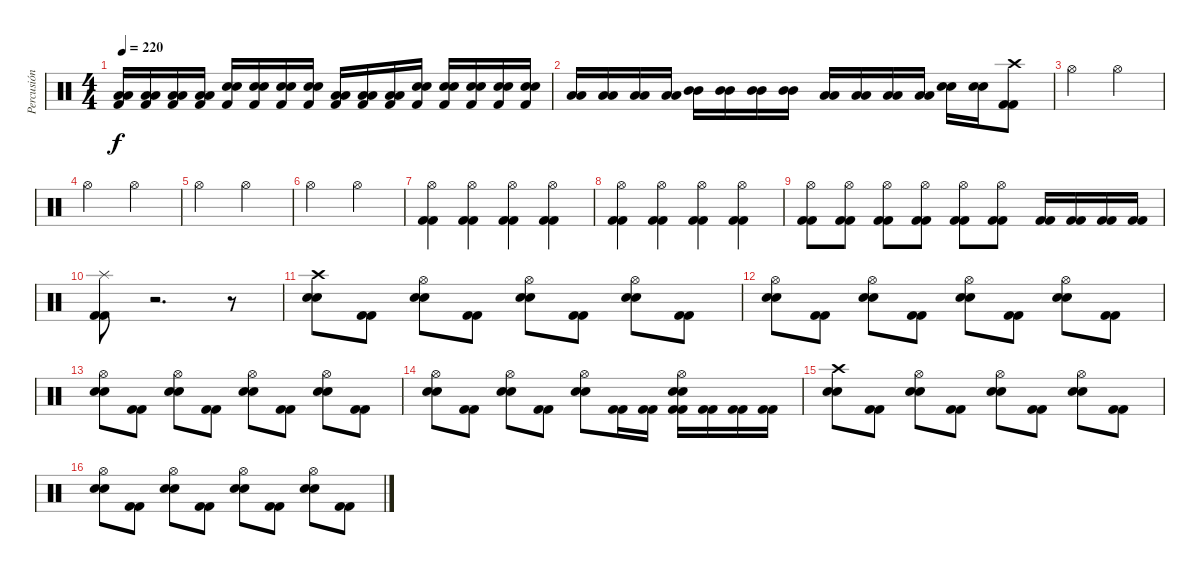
\track ("Percusión" "Percusión") {instrument percussion}
\staff {score}
\articulation defaults
\ts (4 4)
\tempo 220
\clef neutral
\ks c
("Kick (hit) 2" "Low Tom (hit)" "Low Tom (hit)").16{dy f} ("Kick (hit) 2" "Low Tom (hit)" "Low Tom (hit)").16 ("Kick (hit) 2" "Low Tom (hit)" "Low Tom (hit)").16 ("Kick (hit) 2" "Low Tom (hit)" "Low Tom (hit)").16 ("Kick (hit) 2" "Electric Snare (hit)" "Electric Snare (hit)").16 ("Kick (hit) 2" "Electric Snare (hit)" "Electric Snare (hit)").16 ("Kick (hit) 2" "Electric Snare (hit)" "Electric Snare (hit)").16 ("Kick (hit) 2" "Electric Snare (hit)" "Electric Snare (hit)").16 ("Kick (hit) 2" "Low Tom (hit)" "Low Tom (hit)").16 ("Kick (hit) 2" "Low Tom (hit)" "Low Tom (hit)").16 ("Kick (hit) 2" "Low Tom (hit)" "Low Tom (hit)").16 ("Kick (hit) 2" "Electric Snare (hit)" "Electric Snare (hit)").16 ("Kick (hit) 2" "Electric Snare (hit)" "Electric Snare (hit)").16 ("Kick (hit) 2" "Electric Snare (hit)" "Electric Snare (hit)").16 ("Kick (hit) 2" "Electric Snare (hit)" "Electric Snare (hit)").16 ("Kick (hit) 2" "Electric Snare (hit)" "Electric Snare (hit)").16 |
("Low Tom (hit)" "Low Tom (hit)").16 ("Low Tom (hit)" "Low Tom (hit)").16 ("Low Tom (hit)" "Low Tom (hit)").16 ("Low Tom (hit)" "Low Tom (hit)").16 ("Mid Tom (hit)" "Mid Tom (hit)").16 ("Mid Tom (hit)" "Mid Tom (hit)").16 ("Mid Tom (hit)" "Mid Tom (hit)").16 ("Mid Tom (hit)" "Mid Tom (hit)").16 ("Low Floor Tom (hit)" "Low Floor Tom (hit)").16 ("Low Floor Tom (hit)" "Low Floor Tom (hit)").16 ("Low Floor Tom (hit)" "Low Floor Tom (hit)").16 ("Low Floor Tom (hit)" "Low Floor Tom (hit)").16 ("Electric Snare (hit)" "Electric Snare (hit)").16 ("Electric Snare (hit)" "Electric Snare (hit)").16 ("Kick (hit) 2" "Kick (hit) 2" "Crash high (hit)").8 |
"Hi-Hat (open)".2 "Hi-Hat (open)".2 |
"Hi-Hat (open)".2 "Hi-Hat (open)".2 |
"Hi-Hat (open)".2 "Hi-Hat (open)".2 |
"Hi-Hat (open)".2 "Hi-Hat (open)".2 |
("Kick (hit) 2" "Kick (hit) 2" "Hi-Hat (open)").4 ("Kick (hit) 2" "Kick (hit) 2" "Hi-Hat (open)").4 ("Kick (hit) 2" "Kick (hit) 2" "Hi-Hat (open)").4 ("Kick (hit) 2" "Kick (hit) 2" "Hi-Hat (open)").4 |
("Kick (hit) 2" "Kick (hit) 2" "Hi-Hat (open)").4 ("Kick (hit) 2" "Kick (hit) 2" "Hi-Hat (open)").4 ("Kick (hit) 2" "Kick (hit) 2" "Hi-Hat (open)").4 ("Kick (hit) 2" "Kick (hit) 2" "Hi-Hat (open)").4 |
("Kick (hit) 2" "Kick (hit) 2" "Hi-Hat (open)").8 ("Kick (hit) 2" "Kick (hit) 2" "Hi-Hat (open)").8 ("Kick (hit) 2" "Kick (hit) 2" "Hi-Hat (open)").8 ("Kick (hit) 2" "Kick (hit) 2" "Hi-Hat (open)").8 ("Kick (hit) 2" "Kick (hit) 2" "Hi-Hat (open)").8 ("Kick (hit) 2" "Kick (hit) 2" "Hi-Hat (open)").8 ("Kick (hit) 2" "Kick (hit) 2").16 ("Kick (hit) 2" "Kick (hit) 2").16 ("Kick (hit) 2" "Kick (hit) 2").16 ("Kick (hit) 2" "Kick (hit) 2").16 |
("Kick (hit) 2" "Kick (hit) 2" "Splash (hit)").8 r.2{d} r.8 |
("Electric Snare (hit)" "Electric Snare (hit)" "Crash high (hit)").8 ("Kick (hit) 2" "Kick (hit) 2").8 ("Electric Snare (hit)" "Electric Snare (hit)" "Hi-Hat (open)").8 ("Kick (hit) 2" "Kick (hit) 2").8 ("Electric Snare (hit)" "Electric Snare (hit)" "Hi-Hat (open)").8 ("Kick (hit) 2" "Kick (hit) 2").8 ("Electric Snare (hit)" "Electric Snare (hit)" "Hi-Hat (open)").8 ("Kick (hit) 2" "Kick (hit) 2").8 |
("Electric Snare (hit)" "Electric Snare (hit)" "Hi-Hat (open)").8 ("Kick (hit) 2" "Kick (hit) 2").8 ("Electric Snare (hit)" "Electric Snare (hit)" "Hi-Hat (open)").8 ("Kick (hit) 2" "Kick (hit) 2").8 ("Electric Snare (hit)" "Electric Snare (hit)" "Hi-Hat (open)").8 ("Kick (hit) 2" "Kick (hit) 2").8 ("Electric Snare (hit)" "Electric Snare (hit)" "Hi-Hat (open)").8 ("Kick (hit) 2" "Kick (hit) 2").8 |
("Electric Snare (hit)" "Electric Snare (hit)" "Hi-Hat (open)").8 ("Kick (hit) 2" "Kick (hit) 2").8 ("Electric Snare (hit)" "Electric Snare (hit)" "Hi-Hat (open)").8 ("Kick (hit) 2" "Kick (hit) 2").8 ("Electric Snare (hit)" "Electric Snare (hit)" "Hi-Hat (open)").8 ("Kick (hit) 2" "Kick (hit) 2").8 ("Electric Snare (hit)" "Electric Snare (hit)" "Hi-Hat (open)").8 ("Kick (hit) 2" "Kick (hit) 2").8 |
("Electric Snare (hit)" "Electric Snare (hit)" "Hi-Hat (open)").8 ("Kick (hit) 2" "Kick (hit) 2").8 ("Electric Snare (hit)" "Electric Snare (hit)" "Hi-Hat (open)").8 ("Kick (hit) 2" "Kick (hit) 2").8 ("Electric Snare (hit)" "Electric Snare (hit)" "Hi-Hat (open)").8 ("Kick (hit) 2" "Kick (hit) 2").16 ("Kick (hit) 2" "Kick (hit) 2").16 ("Kick (hit) 2" "Kick (hit) 2" "Electric Snare (hit)" "Electric Snare (hit)" "Hi-Hat (open)").16 ("Kick (hit) 2" "Kick (hit) 2").16 ("Kick (hit) 2" "Kick (hit) 2").16 ("Kick (hit) 2" "Kick (hit) 2").16 |
("Electric Snare (hit)" "Electric Snare (hit)" "Crash high (hit)").8 ("Kick (hit) 2" "Kick (hit) 2").8 ("Electric Snare (hit)" "Electric Snare (hit)" "Hi-Hat (open)").8 ("Kick (hit) 2" "Kick (hit) 2").8 ("Electric Snare (hit)" "Electric Snare (hit)" "Hi-Hat (open)").8 ("Kick (hit) 2" "Kick (hit) 2").8 ("Electric Snare (hit)" "Electric Snare (hit)" "Hi-Hat (open)").8 ("Kick (hit) 2" "Kick (hit) 2").8 |
("Electric Snare (hit)" "Electric Snare (hit)" "Hi-Hat (open)").8 ("Kick (hit) 2" "Kick (hit) 2").8 ("Electric Snare (hit)" "Electric Snare (hit)" "Hi-Hat (open)").8 ("Kick (hit) 2" "Kick (hit) 2").8 ("Electric Snare (hit)" "Electric Snare (hit)" "Hi-Hat (open)").8 ("Kick (hit) 2" "Kick (hit) 2").8 ("Electric Snare (hit)" "Electric Snare (hit)" "Hi-Hat (open)").8 ("Kick (hit) 2" "Kick (hit) 2").8
